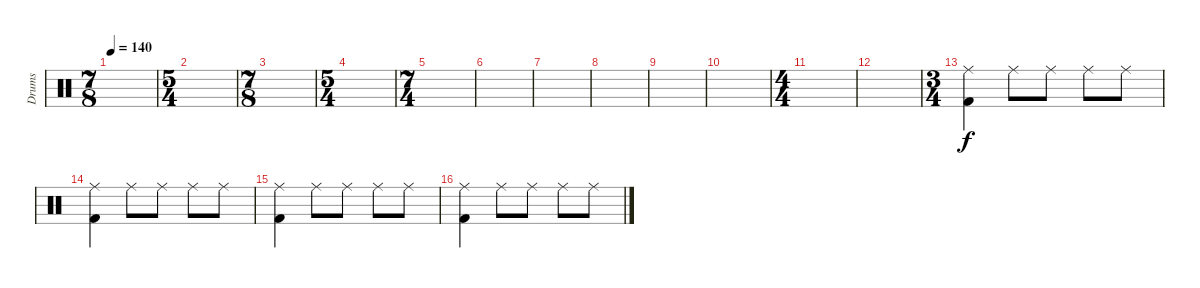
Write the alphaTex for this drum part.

\track ("Drums" "Drums") {instrument percussion}
\staff {score}
\articulation defaults
\ts (7 8)
\tempo 140
\clef neutral
\ks c
|
\ts (5 4)
|
\ts (7 8)
|
\ts (5 4)
|
\ts (7 4)
|
|
|
|
|
|
\ts (4 4)
|
|
\ts (3 4)
("Ride (middle)" "Kick (hit) 2").4 "Ride (middle)".8 "Ride (middle)".8 "Ride (middle)".8 "Ride (middle)".8 |
("Ride (middle)" "Kick (hit) 2").4 "Ride (middle)".8 "Ride (middle)".8 "Ride (middle)".8 "Ride (middle)".8 |
("Ride (middle)" "Kick (hit) 2").4 "Ride (middle)".8 "Ride (middle)".8 "Ride (middle)".8 "Ride (middle)".8 |
("Ride (middle)" "Kick (hit) 2").4 "Ride (middle)".8 "Ride (middle)".8 "Ride (middle)".8 "Ride (middle)".8
